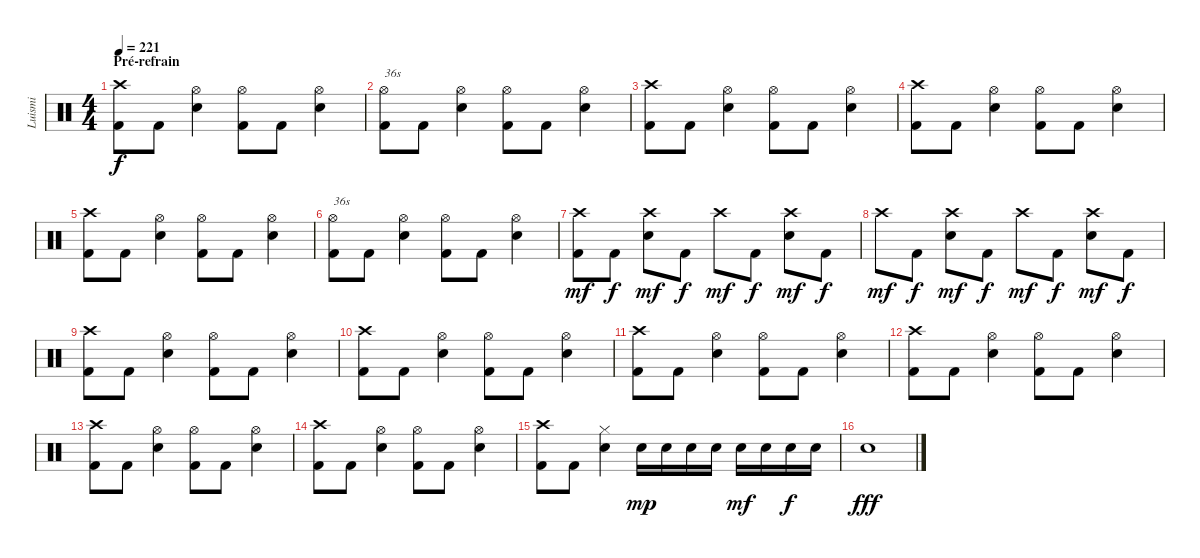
\track ("Luismi" "Luismi") {instrument percussion}
\staff {score}
\articulation defaults
\ts (4 4)
\section ("" "Pré-refrain")
\tempo 221
\clef neutral
\ks c
("Crash high (hit)" "Kick (hit) 2").8{dy f} "Kick (hit) 2".8 ("Hi-Hat (open)" "Snare (hit) 2").4 ("Hi-Hat (open)" "Kick (hit) 2").8 "Kick (hit) 2".8 ("Hi-Hat (open)" "Snare (hit) 2").4 |
("Hi-Hat (open)" "Kick (hit) 2").8{txt "36s"} "Kick (hit) 2".8 ("Hi-Hat (open)" "Snare (hit) 2").4 ("Hi-Hat (open)" "Kick (hit) 2").8 "Kick (hit) 2".8 ("Hi-Hat (open)" "Snare (hit) 2").4 |
("Crash high (hit)" "Kick (hit) 2").8 "Kick (hit) 2".8 ("Hi-Hat (open)" "Snare (hit) 2").4 ("Hi-Hat (open)" "Kick (hit) 2").8 "Kick (hit) 2".8 ("Hi-Hat (open)" "Snare (hit) 2").4 |
("Crash high (hit)" "Kick (hit) 2").8 "Kick (hit) 2".8 ("Hi-Hat (open)" "Snare (hit) 2").4 ("Hi-Hat (open)" "Kick (hit) 2").8 "Kick (hit) 2".8 ("Hi-Hat (open)" "Snare (hit) 2").4 |
("Crash high (hit)" "Kick (hit) 2").8 "Kick (hit) 2".8 ("Hi-Hat (open)" "Snare (hit) 2").4 ("Hi-Hat (open)" "Kick (hit) 2").8 "Kick (hit) 2".8 ("Hi-Hat (open)" "Snare (hit) 2").4 |
("Hi-Hat (open)" "Kick (hit) 2").8{txt "36s"} "Kick (hit) 2".8 ("Hi-Hat (open)" "Snare (hit) 2").4 ("Hi-Hat (open)" "Kick (hit) 2").8 "Kick (hit) 2".8 ("Hi-Hat (open)" "Snare (hit) 2").4 |
("Crash high (hit)" "Kick (hit) 2").8{dy mf} "Kick (hit) 2".8{dy f} ("Crash high (hit)" "Snare (hit) 2").8{dy mf} "Kick (hit) 2".8{dy f} "Crash high (hit)".8{dy mf} "Kick (hit) 2".8{dy f} ("Crash high (hit)" "Snare (hit) 2").8{dy mf} "Kick (hit) 2".8{dy f} |
"Crash high (hit)".8{dy mf} "Kick (hit) 2".8{dy f} ("Crash high (hit)" "Snare (hit) 2").8{dy mf} "Kick (hit) 2".8{dy f} "Crash high (hit)".8{dy mf} "Kick (hit) 2".8{dy f} ("Crash high (hit)" "Snare (hit) 2").8{dy mf} "Kick (hit) 2".8{dy f} |
("Crash high (hit)" "Kick (hit) 2").8 "Kick (hit) 2".8 ("Hi-Hat (open)" "Snare (hit) 2").4 ("Hi-Hat (open)" "Kick (hit) 2").8 "Kick (hit) 2".8 ("Hi-Hat (open)" "Snare (hit) 2").4 |
("Crash high (hit)" "Kick (hit) 2").8 "Kick (hit) 2".8 ("Hi-Hat (open)" "Snare (hit) 2").4 ("Hi-Hat (open)" "Kick (hit) 2").8 "Kick (hit) 2".8 ("Hi-Hat (open)" "Snare (hit) 2").4 |
("Crash high (hit)" "Kick (hit) 2").8 "Kick (hit) 2".8 ("Hi-Hat (open)" "Snare (hit) 2").4 ("Hi-Hat (open)" "Kick (hit) 2").8 "Kick (hit) 2".8 ("Hi-Hat (open)" "Snare (hit) 2").4 |
("Crash high (hit)" "Kick (hit) 2").8 "Kick (hit) 2".8 ("Hi-Hat (open)" "Snare (hit) 2").4 ("Hi-Hat (open)" "Kick (hit) 2").8 "Kick (hit) 2".8 ("Hi-Hat (open)" "Snare (hit) 2").4 |
("Crash high (hit)" "Kick (hit) 2").8 "Kick (hit) 2".8 ("Hi-Hat (open)" "Snare (hit) 2").4 ("Hi-Hat (open)" "Kick (hit) 2").8 "Kick (hit) 2".8 ("Hi-Hat (open)" "Snare (hit) 2").4 |
("Crash high (hit)" "Kick (hit) 2").8 "Kick (hit) 2".8 ("Hi-Hat (open)" "Snare (hit) 2").4 ("Hi-Hat (open)" "Kick (hit) 2").8 "Kick (hit) 2".8 ("Hi-Hat (open)" "Snare (hit) 2").4 |
("Crash high (hit)" "Kick (hit) 2").8 "Kick (hit) 2".8 ("Hi-Hat (closed)" "Snare (hit) 2").4 "Snare (hit) 2".16{dy mp} "Snare (hit) 2".16 "Snare (hit) 2".16 "Snare (hit) 2".16 "Snare (hit) 2".16{dy mf} "Snare (hit) 2".16 "Snare (hit) 2".16{dy f} "Snare (hit) 2".16 |
"Snare (hit) 2".1{dy fff}
